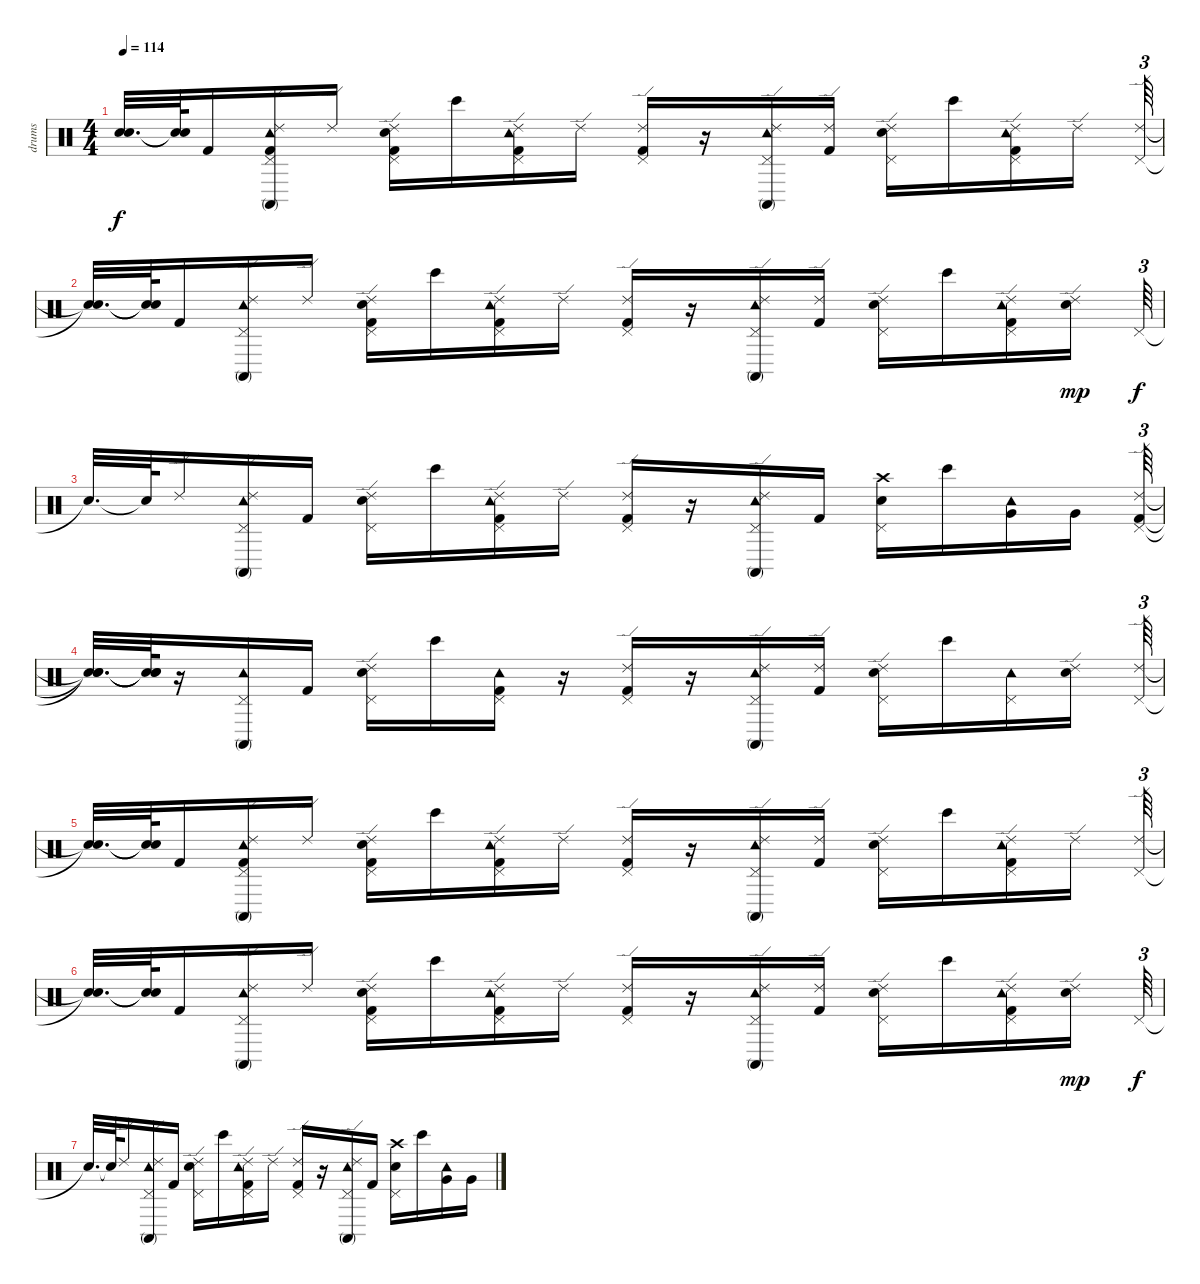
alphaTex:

\track ("drums" "drums") {instrument percussion}
\staff {score}
\articulation defaults
\ts (4 4)
\tempo 114
\clef neutral
\ks c
("Snare (hit)"{t} "Snare (hit)"{t}).32{d dy f} ("Snare (hit)"{t} "Snare (hit)"{t}).64 "Kick (hit) 2".16 ("Ride (edge) 2" "Kick (hit) 2" "Pedal Hi-Hat (hit)" "Tambourine (hit)" "Conga high (mute)").16 "Ride (edge) 2".16 ("Kick (hit) 2" "Ride (edge) 2" "Electric Snare (hit)" "Pedal Hi-Hat (hit)").16 "Bongo High (hit)".16 ("Ride (edge) 2" "Kick (hit) 2" "Pedal Hi-Hat (hit)" "Tambourine (hit)").16 "Ride (edge) 2".16 ("Kick (hit) 2" "Ride (edge) 2" "Pedal Hi-Hat (hit)").16 r.16 ("Ride (edge) 2" "Pedal Hi-Hat (hit)" "Conga high (mute)" "Tambourine (hit)").16 ("Ride (edge) 2" "Kick (hit) 2").16 ("Electric Snare (hit)" "Ride (edge) 2" "Pedal Hi-Hat (hit)").16 "Bongo High (hit)".16 ("Ride (edge) 2" "Kick (hit) 2" "Pedal Hi-Hat (hit)" "Tambourine (hit)").16 "Ride (edge) 2".16 ("Ride (edge) 2" "Pedal Hi-Hat (hit)").64{tu (3 2)} |
("Snare (hit)"{t} "Snare (hit)"{t}).32{d} ("Snare (hit)"{t} "Snare (hit)"{t}).64 "Kick (hit) 2".16 ("Ride (edge) 2" "Pedal Hi-Hat (hit)" "Tambourine (hit)" "Conga high (mute)").16 "Ride (edge) 2".16 ("Ride (edge) 2" "Kick (hit) 2" "Electric Snare (hit)" "Pedal Hi-Hat (hit)").16 "Bongo High (hit)".16 ("Kick (hit) 2" "Ride (edge) 2" "Pedal Hi-Hat (hit)" "Tambourine (hit)").16 "Ride (edge) 2".16 ("Ride (edge) 2" "Kick (hit) 2" "Pedal Hi-Hat (hit)").16 r.16 ("Ride (edge) 2" "Pedal Hi-Hat (hit)" "Conga high (mute)" "Tambourine (hit)").16 ("Ride (edge) 2" "Kick (hit) 2").16 ("Electric Snare (hit)" "Ride (edge) 2" "Pedal Hi-Hat (hit)").16 "Bongo High (hit)".16 ("Ride (edge) 2" "Kick (hit) 2" "Pedal Hi-Hat (hit)" "Tambourine (hit)").16 ("Ride (edge) 2" "Electric Snare (hit)").16{dy mp} "Pedal Hi-Hat (hit)".64{tu (3 2) dy f} |
"Snare (hit)"{t}.32{d} "Snare (hit)"{t}.64 "Ride (edge) 2".16 ("Ride (edge) 2" "Pedal Hi-Hat (hit)" "Tambourine (hit)" "Conga high (mute)").16 "Kick (hit) 2".16 ("Ride (edge) 2" "Electric Snare (hit)" "Pedal Hi-Hat (hit)").16 "Bongo High (hit)".16 ("Ride (edge) 2" "Kick (hit) 2" "Pedal Hi-Hat (hit)" "Tambourine (hit)").16 "Ride (edge) 2".16 ("Kick (hit) 2" "Ride (edge) 2" "Pedal Hi-Hat (hit)").16 r.16 ("Ride (edge) 2" "Pedal Hi-Hat (hit)" "Conga high (mute)" "Tambourine (hit)").16 "Kick (hit) 2".16 ("Crash high (hit)" "Electric Snare (hit)" "Pedal Hi-Hat (hit)").16 "Bongo High (hit)".16 ("Very Low Tom (hit)" "Tambourine (hit)").16 "Very Low Tom (hit)".16 ("Kick (hit) 2" "Ride (edge) 2" "Pedal Hi-Hat (hit)").64{tu (3 2)} |
("Snare (hit)"{t} "Snare (hit)"{t} "Snare (hit)"{t}).32{d} ("Snare (hit)"{t} "Snare (hit)"{t} "Snare (hit)"{t}).64 r.16 ("Pedal Hi-Hat (hit)" "Tambourine (hit)" "Conga high (mute)").16 "Kick (hit) 2".16 ("Electric Snare (hit)" "Ride (edge) 2" "Pedal Hi-Hat (hit)").16 "Bongo High (hit)".16 ("Kick (hit) 2" "Pedal Hi-Hat (hit)" "Tambourine (hit)").16 r.16 ("Ride (edge) 2" "Kick (hit) 2" "Pedal Hi-Hat (hit)").16 r.16 ("Ride (edge) 2" "Pedal Hi-Hat (hit)" "Conga high (mute)" "Tambourine (hit)").16 ("Kick (hit) 2" "Ride (edge) 2").16 ("Electric Snare (hit)" "Ride (edge) 2" "Pedal Hi-Hat (hit)").16 "Bongo High (hit)".16 ("Pedal Hi-Hat (hit)" "Tambourine (hit)").16 ("Ride (edge) 2" "Electric Snare (hit)").16 ("Ride (edge) 2" "Pedal Hi-Hat (hit)").64{tu (3 2)} |
("Snare (hit)"{t} "Snare (hit)"{t}).32{d} ("Snare (hit)"{t} "Snare (hit)"{t}).64 "Kick (hit) 2".16 ("Ride (edge) 2" "Kick (hit) 2" "Pedal Hi-Hat (hit)" "Tambourine (hit)" "Conga high (mute)").16 "Ride (edge) 2".16 ("Kick (hit) 2" "Ride (edge) 2" "Electric Snare (hit)" "Pedal Hi-Hat (hit)").16 "Bongo High (hit)".16 ("Ride (edge) 2" "Kick (hit) 2" "Pedal Hi-Hat (hit)" "Tambourine (hit)").16 "Ride (edge) 2".16 ("Kick (hit) 2" "Ride (edge) 2" "Pedal Hi-Hat (hit)").16 r.16 ("Ride (edge) 2" "Pedal Hi-Hat (hit)" "Conga high (mute)" "Tambourine (hit)").16 ("Ride (edge) 2" "Kick (hit) 2").16 ("Electric Snare (hit)" "Ride (edge) 2" "Pedal Hi-Hat (hit)").16 "Bongo High (hit)".16 ("Ride (edge) 2" "Kick (hit) 2" "Pedal Hi-Hat (hit)" "Tambourine (hit)").16 "Ride (edge) 2".16 ("Ride (edge) 2" "Pedal Hi-Hat (hit)").64{tu (3 2)} |
("Snare (hit)"{t} "Snare (hit)"{t}).32{d} ("Snare (hit)"{t} "Snare (hit)"{t}).64 "Kick (hit) 2".16 ("Ride (edge) 2" "Pedal Hi-Hat (hit)" "Tambourine (hit)" "Conga high (mute)").16 "Ride (edge) 2".16 ("Ride (edge) 2" "Kick (hit) 2" "Electric Snare (hit)" "Pedal Hi-Hat (hit)").16 "Bongo High (hit)".16 ("Kick (hit) 2" "Ride (edge) 2" "Pedal Hi-Hat (hit)" "Tambourine (hit)").16 "Ride (edge) 2".16 ("Ride (edge) 2" "Kick (hit) 2" "Pedal Hi-Hat (hit)").16 r.16 ("Ride (edge) 2" "Pedal Hi-Hat (hit)" "Conga high (mute)" "Tambourine (hit)").16 ("Ride (edge) 2" "Kick (hit) 2").16 ("Electric Snare (hit)" "Ride (edge) 2" "Pedal Hi-Hat (hit)").16 "Bongo High (hit)".16 ("Ride (edge) 2" "Kick (hit) 2" "Pedal Hi-Hat (hit)" "Tambourine (hit)").16 ("Ride (edge) 2" "Electric Snare (hit)").16{dy mp} "Pedal Hi-Hat (hit)".64{tu (3 2) dy f} |
"Snare (hit)"{t}.32{d} "Snare (hit)"{t}.64 "Ride (edge) 2".16 ("Ride (edge) 2" "Pedal Hi-Hat (hit)" "Tambourine (hit)" "Conga high (mute)").16 "Kick (hit) 2".16 ("Ride (edge) 2" "Electric Snare (hit)" "Pedal Hi-Hat (hit)").16 "Bongo High (hit)".16 ("Ride (edge) 2" "Kick (hit) 2" "Pedal Hi-Hat (hit)" "Tambourine (hit)").16 "Ride (edge) 2".16 ("Kick (hit) 2" "Ride (edge) 2" "Pedal Hi-Hat (hit)").16 r.16 ("Ride (edge) 2" "Pedal Hi-Hat (hit)" "Conga high (mute)" "Tambourine (hit)").16 "Kick (hit) 2".16 ("Crash high (hit)" "Electric Snare (hit)" "Pedal Hi-Hat (hit)").16 "Bongo High (hit)".16 ("Very Low Tom (hit)" "Tambourine (hit)").16 "Very Low Tom (hit)".16
